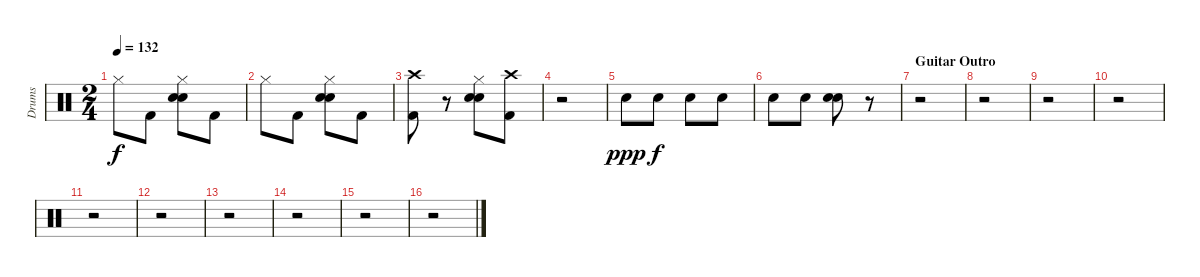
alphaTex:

\track ("Drums" "Drums") {instrument percussion}
\staff {score}
\articulation defaults
\ts (2 4)
\tempo 132
\clef neutral
\ks c "Hi-Hat (closed)".8{dy f} "Kick (hit) 2".8
("Electric Snare (hit)" "Electric Snare (hit)" "Hi-Hat (closed)").8 "Kick (hit) 2".8 |
"Hi-Hat (closed)".8 "Kick (hit) 2".8 ("Electric Snare (hit)" "Electric Snare (hit)" "Hi-Hat (closed)").8 "Kick (hit) 2".8 |
("Kick (hit) 2" "Crash high (hit)").8 r.8 ("Electric Snare (hit)" "Electric Snare (hit)" "Hi-Hat (closed)").8 ("Kick (hit) 2" "Crash high (hit)").8 |
r.2 |
"Electric Snare (hit)".8{dy ppp volume 10} "Electric Snare (hit)".8{dy f volume 11} "Electric Snare (hit)".8{volume 11} "Electric Snare (hit)".8 |
"Electric Snare (hit)".8{volume 12} "Electric Snare (hit)".8 ("Electric Snare (hit)" "Electric Snare (hit)").8{bd 240 volume 15} r.8{volume 15} |
\section ("" "Guitar Outro")
r.2 |
r.2 |
r.2 |
r.2 |
r.2 |
r.2 |
r.2 |
r.2 |
r.2 |
r.2
